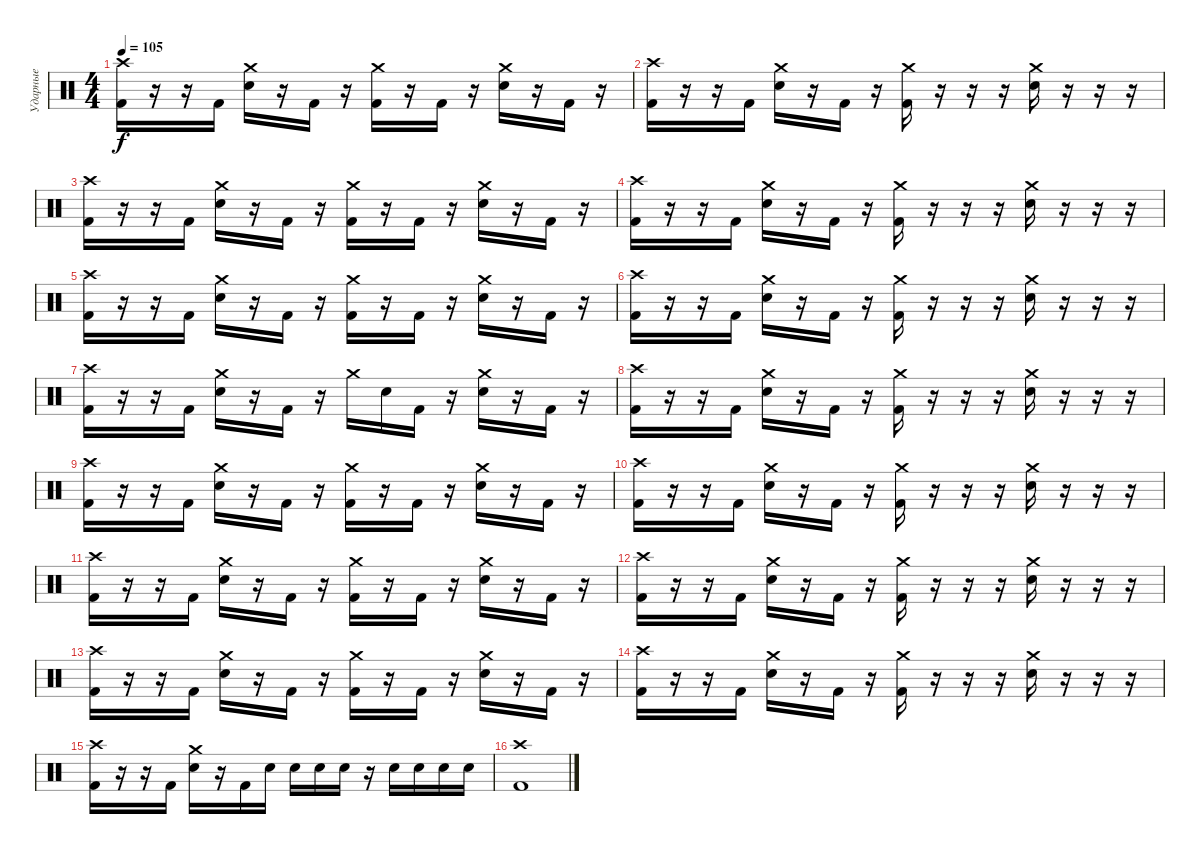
\track ("Ударные" "Ударные") {instrument percussion}
\staff {score}
\articulation defaults
\ts (4 4)
\tempo 105
\clef neutral
\ks c
("Crash high (hit)" "Kick (hit) 2").16{dy f} r.16 r.16 "Kick (hit) 2".16 ("Crash medium (hit)" "Electric Snare (hit)").16 r.16 "Kick (hit) 2".16 r.16 ("Crash medium (hit)" "Kick (hit) 2").16 r.16 "Kick (hit) 2".16 r.16 ("Crash medium (hit)" "Electric Snare (hit)").16 r.16 "Kick (hit) 2".16 r.16 |
("Crash high (hit)" "Kick (hit) 2").16 r.16 r.16 "Kick (hit) 2".16 ("Crash medium (hit)" "Electric Snare (hit)").16 r.16 "Kick (hit) 2".16 r.16 ("Crash medium (hit)" "Kick (hit) 2").16 r.16 r.16 r.16 ("Crash medium (hit)" "Electric Snare (hit)").16 r.16 r.16 r.16 |
("Crash high (hit)" "Kick (hit) 2").16 r.16 r.16 "Kick (hit) 2".16 ("Crash medium (hit)" "Electric Snare (hit)").16 r.16 "Kick (hit) 2".16 r.16 ("Crash medium (hit)" "Kick (hit) 2").16 r.16 "Kick (hit) 2".16 r.16 ("Crash medium (hit)" "Electric Snare (hit)").16 r.16 "Kick (hit) 2".16 r.16 |
("Crash high (hit)" "Kick (hit) 2").16 r.16 r.16 "Kick (hit) 2".16 ("Crash medium (hit)" "Electric Snare (hit)").16 r.16 "Kick (hit) 2".16 r.16 ("Crash medium (hit)" "Kick (hit) 2").16 r.16 r.16 r.16 ("Crash medium (hit)" "Electric Snare (hit)").16 r.16 r.16 r.16 |
("Crash high (hit)" "Kick (hit) 2").16 r.16 r.16 "Kick (hit) 2".16 ("Crash medium (hit)" "Electric Snare (hit)").16 r.16 "Kick (hit) 2".16 r.16 ("Crash medium (hit)" "Kick (hit) 2").16 r.16 "Kick (hit) 2".16 r.16 ("Crash medium (hit)" "Electric Snare (hit)").16 r.16 "Kick (hit) 2".16 r.16 |
("Crash high (hit)" "Kick (hit) 2").16 r.16 r.16 "Kick (hit) 2".16 ("Crash medium (hit)" "Electric Snare (hit)").16 r.16 "Kick (hit) 2".16 r.16 ("Crash medium (hit)" "Kick (hit) 2").16 r.16 r.16 r.16 ("Crash medium (hit)" "Electric Snare (hit)").16 r.16 r.16 r.16 |
("Crash high (hit)" "Kick (hit) 2").16 r.16 r.16 "Kick (hit) 2".16 ("Crash medium (hit)" "Electric Snare (hit)").16 r.16 "Kick (hit) 2".16 r.16 "Crash medium (hit)".16 "Electric Snare (hit)".16 "Kick (hit) 2".16 r.16 ("Crash medium (hit)" "Electric Snare (hit)").16 r.16 "Kick (hit) 2".16 r.16 |
("Crash high (hit)" "Kick (hit) 2").16 r.16 r.16 "Kick (hit) 2".16 ("Crash medium (hit)" "Electric Snare (hit)").16 r.16 "Kick (hit) 2".16 r.16 ("Crash medium (hit)" "Kick (hit) 2").16 r.16 r.16 r.16 ("Crash medium (hit)" "Electric Snare (hit)").16 r.16 r.16 r.16 |
("Crash high (hit)" "Kick (hit) 2").16 r.16 r.16 "Kick (hit) 2".16 ("Crash medium (hit)" "Electric Snare (hit)").16 r.16 "Kick (hit) 2".16 r.16 ("Crash medium (hit)" "Kick (hit) 2").16 r.16 "Kick (hit) 2".16 r.16 ("Crash medium (hit)" "Electric Snare (hit)").16 r.16 "Kick (hit) 2".16 r.16 |
("Crash high (hit)" "Kick (hit) 2").16 r.16 r.16 "Kick (hit) 2".16 ("Crash medium (hit)" "Electric Snare (hit)").16 r.16 "Kick (hit) 2".16 r.16 ("Crash medium (hit)" "Kick (hit) 2").16 r.16 r.16 r.16 ("Crash medium (hit)" "Electric Snare (hit)").16 r.16 r.16 r.16 |
("Crash high (hit)" "Kick (hit) 2").16 r.16 r.16 "Kick (hit) 2".16 ("Crash medium (hit)" "Electric Snare (hit)").16 r.16 "Kick (hit) 2".16 r.16 ("Crash medium (hit)" "Kick (hit) 2").16 r.16 "Kick (hit) 2".16 r.16 ("Crash medium (hit)" "Electric Snare (hit)").16 r.16 "Kick (hit) 2".16 r.16 |
("Crash high (hit)" "Kick (hit) 2").16 r.16 r.16 "Kick (hit) 2".16 ("Crash medium (hit)" "Electric Snare (hit)").16 r.16 "Kick (hit) 2".16 r.16 ("Crash medium (hit)" "Kick (hit) 2").16 r.16 r.16 r.16 ("Crash medium (hit)" "Electric Snare (hit)").16 r.16 r.16 r.16 |
("Crash high (hit)" "Kick (hit) 2").16 r.16 r.16 "Kick (hit) 2".16 ("Crash medium (hit)" "Electric Snare (hit)").16 r.16 "Kick (hit) 2".16 r.16 ("Crash medium (hit)" "Kick (hit) 2").16 r.16 "Kick (hit) 2".16 r.16 ("Crash medium (hit)" "Electric Snare (hit)").16 r.16 "Kick (hit) 2".16 r.16 |
("Crash high (hit)" "Kick (hit) 2").16 r.16 r.16 "Kick (hit) 2".16 ("Crash medium (hit)" "Electric Snare (hit)").16 r.16 "Kick (hit) 2".16 r.16 ("Crash medium (hit)" "Kick (hit) 2").16 r.16 r.16 r.16 ("Crash medium (hit)" "Electric Snare (hit)").16 r.16 r.16 r.16 |
("Crash high (hit)" "Kick (hit) 2").16 r.16 r.16 "Kick (hit) 2".16 ("Crash medium (hit)" "Electric Snare (hit)").16 r.16 "Kick (hit) 2".16 "Electric Snare (hit)".16 "Electric Snare (hit)".16 "Electric Snare (hit)".16 "Electric Snare (hit)".16 r.16 "Electric Snare (hit)".16 "Electric Snare (hit)".16 "Electric Snare (hit)".16 "Electric Snare (hit)".16 |
("Crash high (hit)" "Kick (hit) 2").1
